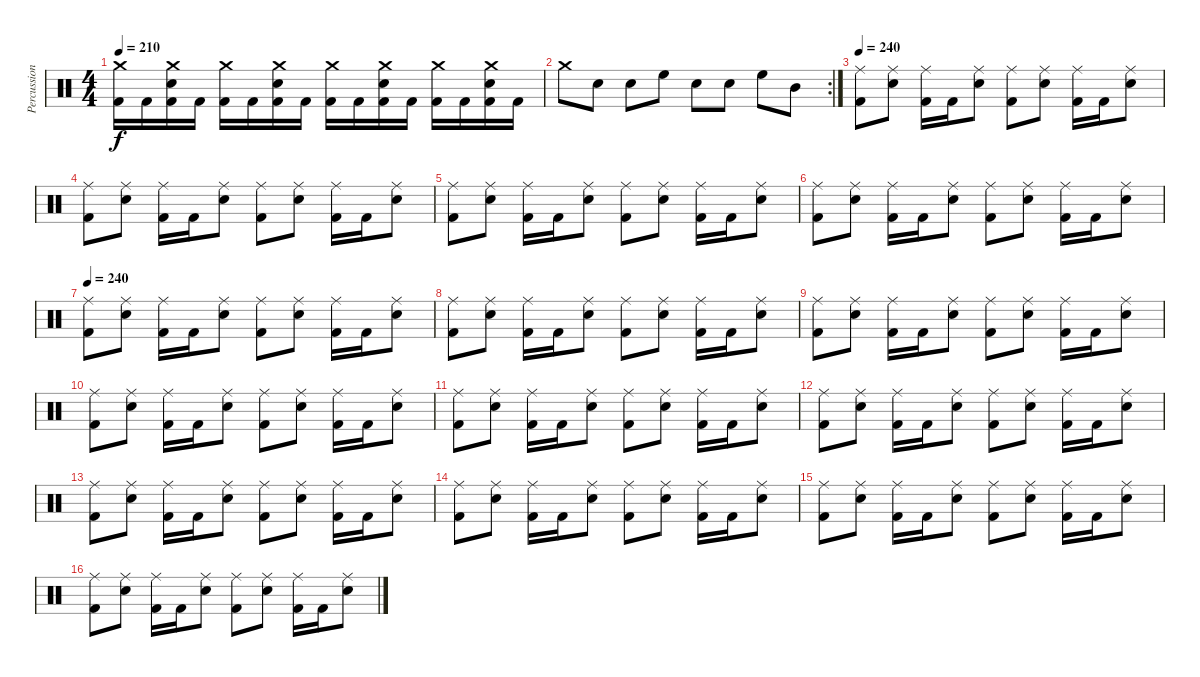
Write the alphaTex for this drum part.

\track ("Percussion" "Percussion") {instrument percussion}
\staff {score}
\articulation defaults
\ts (4 4)
\tempo 210
\clef neutral
\ks c
("Crash medium (hit)" "Kick (hit) 2").16{dy f} "Kick (hit) 2".16 ("Crash medium (hit)" "Electric Snare (hit)" "Kick (hit) 2").16 "Kick (hit) 2".16 ("Crash medium (hit)" "Kick (hit) 2").16 "Kick (hit) 2".16 ("Crash medium (hit)" "Electric Snare (hit)" "Kick (hit) 2").16 "Kick (hit) 2".16 ("Crash medium (hit)" "Kick (hit) 2").16 "Kick (hit) 2".16 ("Crash medium (hit)" "Electric Snare (hit)" "Kick (hit) 2").16 "Kick (hit) 2".16 ("Crash medium (hit)" "Kick (hit) 2").16 "Kick (hit) 2".16 ("Crash medium (hit)" "Electric Snare (hit)" "Kick (hit) 2").16 "Kick (hit) 2".16 |
\rc 2 "Crash medium (hit)".8 "Electric Snare (hit)".8 "Electric Snare (hit)".8 "High Floor Tom (hit)".8 "Electric Snare (hit)".8 "Electric Snare (hit)".8 "High Floor Tom (hit)".8 "Mid Tom (hit)".8
|
\tempo 240
("Ride (middle)" "Kick (hit) 2").8 ("Ride (middle)" "Electric Snare (hit)").8 ("Ride (middle)" "Kick (hit) 2").16 "Kick (hit) 2".16 ("Ride (middle)" "Electric Snare (hit)").8 ("Ride (middle)" "Kick (hit) 2").8 ("Ride (middle)" "Electric Snare (hit)").8 ("Ride (middle)" "Kick (hit) 2").16 "Kick (hit) 2".16 ("Ride (middle)" "Electric Snare (hit)").8 |
("Ride (middle)" "Kick (hit) 2").8 ("Ride (middle)" "Electric Snare (hit)").8 ("Ride (middle)" "Kick (hit) 2").16 "Kick (hit) 2".16 ("Ride (middle)" "Electric Snare (hit)").8 ("Ride (middle)" "Kick (hit) 2").8 ("Ride (middle)" "Electric Snare (hit)").8 ("Ride (middle)" "Kick (hit) 2").16 "Kick (hit) 2".16 ("Ride (middle)" "Electric Snare (hit)").8 |
("Ride (middle)" "Kick (hit) 2").8 ("Ride (middle)" "Electric Snare (hit)").8 ("Ride (middle)" "Kick (hit) 2").16 "Kick (hit) 2".16 ("Ride (middle)" "Electric Snare (hit)").8 ("Ride (middle)" "Kick (hit) 2").8 ("Ride (middle)" "Electric Snare (hit)").8 ("Ride (middle)" "Kick (hit) 2").16 "Kick (hit) 2".16 ("Ride (middle)" "Electric Snare (hit)").8 |
("Ride (middle)" "Kick (hit) 2").8 ("Ride (middle)" "Electric Snare (hit)").8 ("Ride (middle)" "Kick (hit) 2").16 "Kick (hit) 2".16 ("Ride (middle)" "Electric Snare (hit)").8 ("Ride (middle)" "Kick (hit) 2").8 ("Ride (middle)" "Electric Snare (hit)").8 ("Ride (middle)" "Kick (hit) 2").16 "Kick (hit) 2".16 ("Ride (middle)" "Electric Snare (hit)").8 |
\tempo 240
("Ride (middle)" "Kick (hit) 2").8 ("Ride (middle)" "Electric Snare (hit)").8 ("Ride (middle)" "Kick (hit) 2").16 "Kick (hit) 2".16 ("Ride (middle)" "Electric Snare (hit)").8 ("Ride (middle)" "Kick (hit) 2").8 ("Ride (middle)" "Electric Snare (hit)").8 ("Ride (middle)" "Kick (hit) 2").16 "Kick (hit) 2".16 ("Ride (middle)" "Electric Snare (hit)").8 |
("Ride (middle)" "Kick (hit) 2").8 ("Ride (middle)" "Electric Snare (hit)").8 ("Ride (middle)" "Kick (hit) 2").16 "Kick (hit) 2".16 ("Ride (middle)" "Electric Snare (hit)").8 ("Ride (middle)" "Kick (hit) 2").8 ("Ride (middle)" "Electric Snare (hit)").8 ("Ride (middle)" "Kick (hit) 2").16 "Kick (hit) 2".16 ("Ride (middle)" "Electric Snare (hit)").8 |
("Ride (middle)" "Kick (hit) 2").8 ("Ride (middle)" "Electric Snare (hit)").8 ("Ride (middle)" "Kick (hit) 2").16 "Kick (hit) 2".16 ("Ride (middle)" "Electric Snare (hit)").8 ("Ride (middle)" "Kick (hit) 2").8 ("Ride (middle)" "Electric Snare (hit)").8 ("Ride (middle)" "Kick (hit) 2").16 "Kick (hit) 2".16 ("Ride (middle)" "Electric Snare (hit)").8 |
("Ride (middle)" "Kick (hit) 2").8 ("Ride (middle)" "Electric Snare (hit)").8 ("Ride (middle)" "Kick (hit) 2").16 "Kick (hit) 2".16 ("Ride (middle)" "Electric Snare (hit)").8 ("Ride (middle)" "Kick (hit) 2").8 ("Ride (middle)" "Electric Snare (hit)").8 ("Ride (middle)" "Kick (hit) 2").16 "Kick (hit) 2".16 ("Ride (middle)" "Electric Snare (hit)").8 |
("Ride (middle)" "Kick (hit) 2").8 ("Ride (middle)" "Electric Snare (hit)").8 ("Ride (middle)" "Kick (hit) 2").16 "Kick (hit) 2".16 ("Ride (middle)" "Electric Snare (hit)").8 ("Ride (middle)" "Kick (hit) 2").8 ("Ride (middle)" "Electric Snare (hit)").8 ("Ride (middle)" "Kick (hit) 2").16 "Kick (hit) 2".16 ("Ride (middle)" "Electric Snare (hit)").8 |
("Ride (middle)" "Kick (hit) 2").8 ("Ride (middle)" "Electric Snare (hit)").8 ("Ride (middle)" "Kick (hit) 2").16 "Kick (hit) 2".16 ("Ride (middle)" "Electric Snare (hit)").8 ("Ride (middle)" "Kick (hit) 2").8 ("Ride (middle)" "Electric Snare (hit)").8 ("Ride (middle)" "Kick (hit) 2").16 "Kick (hit) 2".16 ("Ride (middle)" "Electric Snare (hit)").8 |
("Ride (middle)" "Kick (hit) 2").8 ("Ride (middle)" "Electric Snare (hit)").8 ("Ride (middle)" "Kick (hit) 2").16 "Kick (hit) 2".16 ("Ride (middle)" "Electric Snare (hit)").8 ("Ride (middle)" "Kick (hit) 2").8 ("Ride (middle)" "Electric Snare (hit)").8 ("Ride (middle)" "Kick (hit) 2").16 "Kick (hit) 2".16 ("Ride (middle)" "Electric Snare (hit)").8 |
("Ride (middle)" "Kick (hit) 2").8 ("Ride (middle)" "Electric Snare (hit)").8 ("Ride (middle)" "Kick (hit) 2").16 "Kick (hit) 2".16 ("Ride (middle)" "Electric Snare (hit)").8 ("Ride (middle)" "Kick (hit) 2").8 ("Ride (middle)" "Electric Snare (hit)").8 ("Ride (middle)" "Kick (hit) 2").16 "Kick (hit) 2".16 ("Ride (middle)" "Electric Snare (hit)").8 |
("Ride (middle)" "Kick (hit) 2").8 ("Ride (middle)" "Electric Snare (hit)").8 ("Ride (middle)" "Kick (hit) 2").16 "Kick (hit) 2".16 ("Ride (middle)" "Electric Snare (hit)").8 ("Ride (middle)" "Kick (hit) 2").8 ("Ride (middle)" "Electric Snare (hit)").8 ("Ride (middle)" "Kick (hit) 2").16 "Kick (hit) 2".16 ("Ride (middle)" "Electric Snare (hit)").8 |
("Ride (middle)" "Kick (hit) 2").8 ("Ride (middle)" "Electric Snare (hit)").8 ("Ride (middle)" "Kick (hit) 2").16 "Kick (hit) 2".16 ("Ride (middle)" "Electric Snare (hit)").8 ("Ride (middle)" "Kick (hit) 2").8 ("Ride (middle)" "Electric Snare (hit)").8 ("Ride (middle)" "Kick (hit) 2").16 "Kick (hit) 2".16 ("Ride (middle)" "Electric Snare (hit)").8
